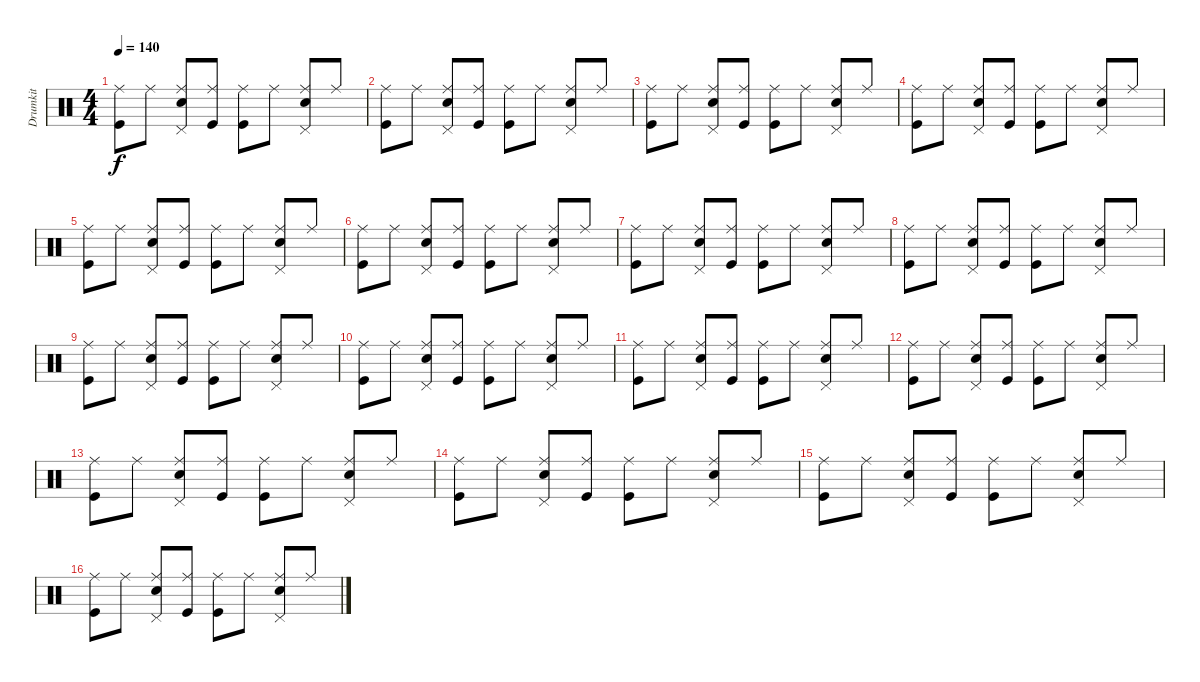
\track ("Drumkit" "Drumkit") {instrument percussion}
\staff {score}
\articulation defaults
\ts (4 4)
\tempo 140
\clef neutral
\ks c
("Ride (middle)" "Kick (hit)").8{dy f} "Ride (middle)".8 ("Ride (middle)" "Snare (hit) 2" "Pedal Hi-Hat (hit)").8 ("Ride (middle)" "Kick (hit)").8 ("Ride (middle)" "Kick (hit)").8 "Ride (middle)".8 ("Ride (middle)" "Snare (hit) 2" "Pedal Hi-Hat (hit)").8 "Ride (middle)".8 |
("Ride (middle)" "Kick (hit)").8 "Ride (middle)".8 ("Ride (middle)" "Snare (hit) 2" "Pedal Hi-Hat (hit)").8 ("Ride (middle)" "Kick (hit)").8 ("Ride (middle)" "Kick (hit)").8 "Ride (middle)".8 ("Ride (middle)" "Snare (hit) 2" "Pedal Hi-Hat (hit)").8 "Ride (middle)".8 |
("Ride (middle)" "Kick (hit)").8 "Ride (middle)".8 ("Ride (middle)" "Snare (hit) 2" "Pedal Hi-Hat (hit)").8 ("Ride (middle)" "Kick (hit)").8 ("Ride (middle)" "Kick (hit)").8 "Ride (middle)".8 ("Ride (middle)" "Snare (hit) 2" "Pedal Hi-Hat (hit)").8 "Ride (middle)".8 |
("Ride (middle)" "Kick (hit)").8 "Ride (middle)".8 ("Ride (middle)" "Snare (hit) 2" "Pedal Hi-Hat (hit)").8 ("Ride (middle)" "Kick (hit)").8 ("Ride (middle)" "Kick (hit)").8 "Ride (middle)".8 ("Ride (middle)" "Snare (hit) 2" "Pedal Hi-Hat (hit)").8 "Ride (middle)".8 |
("Ride (middle)" "Kick (hit)").8 "Ride (middle)".8 ("Ride (middle)" "Snare (hit) 2" "Pedal Hi-Hat (hit)").8 ("Ride (middle)" "Kick (hit)").8 ("Ride (middle)" "Kick (hit)").8 "Ride (middle)".8 ("Ride (middle)" "Snare (hit) 2" "Pedal Hi-Hat (hit)").8 "Ride (middle)".8 |
("Ride (middle)" "Kick (hit)").8 "Ride (middle)".8 ("Ride (middle)" "Snare (hit) 2" "Pedal Hi-Hat (hit)").8 ("Ride (middle)" "Kick (hit)").8 ("Ride (middle)" "Kick (hit)").8 "Ride (middle)".8 ("Ride (middle)" "Snare (hit) 2" "Pedal Hi-Hat (hit)").8 "Ride (middle)".8 |
("Ride (middle)" "Kick (hit)").8 "Ride (middle)".8 ("Ride (middle)" "Snare (hit) 2" "Pedal Hi-Hat (hit)").8 ("Ride (middle)" "Kick (hit)").8 ("Ride (middle)" "Kick (hit)").8 "Ride (middle)".8 ("Ride (middle)" "Snare (hit) 2" "Pedal Hi-Hat (hit)").8 "Ride (middle)".8 |
("Ride (middle)" "Kick (hit)").8 "Ride (middle)".8 ("Ride (middle)" "Snare (hit) 2" "Pedal Hi-Hat (hit)").8 ("Ride (middle)" "Kick (hit)").8 ("Ride (middle)" "Kick (hit)").8 "Ride (middle)".8 ("Ride (middle)" "Snare (hit) 2" "Pedal Hi-Hat (hit)").8 "Ride (middle)".8 |
("Ride (middle)" "Kick (hit)").8 "Ride (middle)".8 ("Ride (middle)" "Snare (hit) 2" "Pedal Hi-Hat (hit)").8 ("Ride (middle)" "Kick (hit)").8 ("Ride (middle)" "Kick (hit)").8 "Ride (middle)".8 ("Ride (middle)" "Snare (hit) 2" "Pedal Hi-Hat (hit)").8 "Ride (middle)".8 |
("Ride (middle)" "Kick (hit)").8 "Ride (middle)".8 ("Ride (middle)" "Snare (hit) 2" "Pedal Hi-Hat (hit)").8 ("Ride (middle)" "Kick (hit)").8 ("Ride (middle)" "Kick (hit)").8 "Ride (middle)".8 ("Ride (middle)" "Snare (hit) 2" "Pedal Hi-Hat (hit)").8 "Ride (middle)".8 |
("Ride (middle)" "Kick (hit)").8 "Ride (middle)".8 ("Ride (middle)" "Snare (hit) 2" "Pedal Hi-Hat (hit)").8 ("Ride (middle)" "Kick (hit)").8 ("Ride (middle)" "Kick (hit)").8 "Ride (middle)".8 ("Ride (middle)" "Snare (hit) 2" "Pedal Hi-Hat (hit)").8 "Ride (middle)".8 |
("Ride (middle)" "Kick (hit)").8 "Ride (middle)".8 ("Ride (middle)" "Snare (hit) 2" "Pedal Hi-Hat (hit)").8 ("Ride (middle)" "Kick (hit)").8 ("Ride (middle)" "Kick (hit)").8 "Ride (middle)".8 ("Ride (middle)" "Snare (hit) 2" "Pedal Hi-Hat (hit)").8 "Ride (middle)".8 |
("Ride (middle)" "Kick (hit)").8 "Ride (middle)".8 ("Ride (middle)" "Snare (hit) 2" "Pedal Hi-Hat (hit)").8 ("Ride (middle)" "Kick (hit)").8 ("Ride (middle)" "Kick (hit)").8 "Ride (middle)".8 ("Ride (middle)" "Snare (hit) 2" "Pedal Hi-Hat (hit)").8 "Ride (middle)".8 |
("Ride (middle)" "Kick (hit)").8 "Ride (middle)".8 ("Ride (middle)" "Snare (hit) 2" "Pedal Hi-Hat (hit)").8 ("Ride (middle)" "Kick (hit)").8 ("Ride (middle)" "Kick (hit)").8 "Ride (middle)".8 ("Ride (middle)" "Snare (hit) 2" "Pedal Hi-Hat (hit)").8 "Ride (middle)".8 |
("Ride (middle)" "Kick (hit)").8 "Ride (middle)".8 ("Ride (middle)" "Snare (hit) 2" "Pedal Hi-Hat (hit)").8 ("Ride (middle)" "Kick (hit)").8 ("Ride (middle)" "Kick (hit)").8 "Ride (middle)".8 ("Ride (middle)" "Snare (hit) 2" "Pedal Hi-Hat (hit)").8 "Ride (middle)".8 |
("Ride (middle)" "Kick (hit)").8 "Ride (middle)".8 ("Ride (middle)" "Snare (hit) 2" "Pedal Hi-Hat (hit)").8 ("Ride (middle)" "Kick (hit)").8 ("Ride (middle)" "Kick (hit)").8 "Ride (middle)".8 ("Ride (middle)" "Snare (hit) 2" "Pedal Hi-Hat (hit)").8 "Ride (middle)".8
